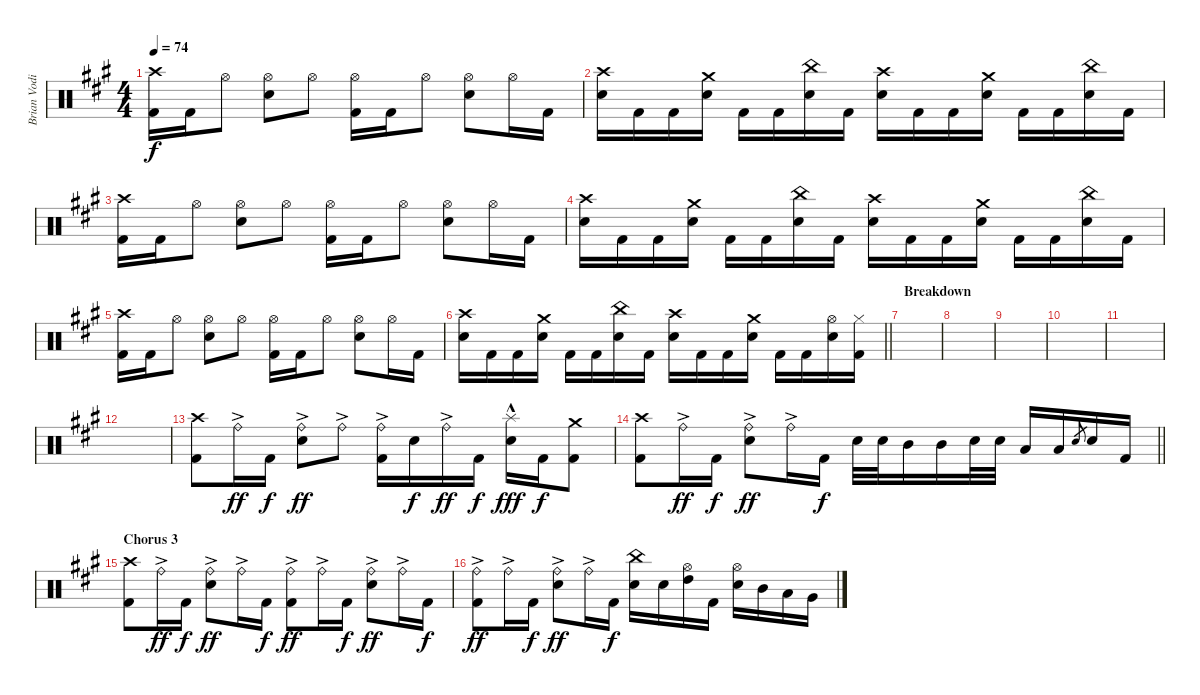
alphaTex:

\track ("Brian Vodinh" "Brian Vodi") {instrument percussion}
\staff {score}
\articulation defaults
\ts (4 4)
\tempo 74
\clef neutral
\ks f#minor
("Crash high (hit)" "Kick (hit) 2").16{dy f} "Kick (hit) 2".16 "Hi-Hat (open)".8 ("Hi-Hat (open)" "Electric Snare (hit)").8 "Hi-Hat (open)".8 ("Hi-Hat (open)" "Kick (hit) 2").16 "Kick (hit) 2".16 "Hi-Hat (open)".8 ("Hi-Hat (open)" "Electric Snare (hit)").8 "Hi-Hat (open)".16 "Kick (hit) 2".16 |
("Crash high (hit)" "Electric Snare (hit)").16 "Kick (hit) 2".16 "Kick (hit) 2".16 ("Crash medium (hit)" "Electric Snare (hit)").16 "Kick (hit) 2".16 "Kick (hit) 2".16 ("China (hit)" "Electric Snare (hit)").16 "Kick (hit) 2".16 ("Crash high (hit)" "Electric Snare (hit)").16 "Kick (hit) 2".16 "Kick (hit) 2".16 ("Crash medium (hit)" "Electric Snare (hit)").16 "Kick (hit) 2".16 "Kick (hit) 2".16 ("China (hit)" "Electric Snare (hit)").16 "Kick (hit) 2".16 |
("Crash high (hit)" "Kick (hit) 2").16 "Kick (hit) 2".16 "Hi-Hat (open)".8 ("Hi-Hat (open)" "Electric Snare (hit)").8 "Hi-Hat (open)".8 ("Hi-Hat (open)" "Kick (hit) 2").16 "Kick (hit) 2".16 "Hi-Hat (open)".8 ("Hi-Hat (open)" "Electric Snare (hit)").8 "Hi-Hat (open)".16 "Kick (hit) 2".16 |
("Crash high (hit)" "Electric Snare (hit)").16 "Kick (hit) 2".16 "Kick (hit) 2".16 ("Crash medium (hit)" "Electric Snare (hit)").16 "Kick (hit) 2".16 "Kick (hit) 2".16 ("China (hit)" "Electric Snare (hit)").16 "Kick (hit) 2".16 ("Crash high (hit)" "Electric Snare (hit)").16 "Kick (hit) 2".16 "Kick (hit) 2".16 ("Crash medium (hit)" "Electric Snare (hit)").16 "Kick (hit) 2".16 "Kick (hit) 2".16 ("China (hit)" "Electric Snare (hit)").16 "Kick (hit) 2".16 |
("Crash high (hit)" "Kick (hit) 2").16 "Kick (hit) 2".16 "Hi-Hat (open)".8 ("Hi-Hat (open)" "Electric Snare (hit)").8 "Hi-Hat (open)".8 ("Hi-Hat (open)" "Kick (hit) 2").16 "Kick (hit) 2".16 "Hi-Hat (open)".8 ("Hi-Hat (open)" "Electric Snare (hit)").8 "Hi-Hat (open)".16 "Kick (hit) 2".16 |
\barLineRight lightlight
("Crash high (hit)" "Electric Snare (hit)").16 "Kick (hit) 2".16 "Kick (hit) 2".16 ("Crash medium (hit)" "Electric Snare (hit)").16 "Kick (hit) 2".16 "Kick (hit) 2".16 ("China (hit)" "Electric Snare (hit)").16 "Kick (hit) 2".16 ("Crash high (hit)" "Electric Snare (hit)").16 "Kick (hit) 2".16 "Kick (hit) 2".16 ("Crash medium (hit)" "Electric Snare (hit)").16 "Kick (hit) 2".16 "Kick (hit) 2".16 ("Hi-Hat (open)" "Electric Snare (hit)").16 ("Hi-Hat (closed)" "Kick (hit) 2").16 |
\section ("" "Breakdown")
|
|
|
|
|
|
("Crash high (hit)" "Kick (hit) 2").8 "Ride (bell)"{ac}.16{dy ff} "Kick (hit) 2".16{dy f} ("Ride (bell)"{ac} "Electric Snare (hit)").8{dy ff} "Ride (bell)"{ac}.8 ("Ride (bell)"{ac} "Kick (hit) 2").16 "Electric Snare (hit)".16{dy f} "Ride (bell)"{ac}.16{dy ff} "Kick (hit) 2".16{dy f} ("Splash (hit)"{hac} "Electric Snare (hit)").16{dy fff} "Kick (hit) 2".16{dy f} ("Crash medium (hit)" "Kick (hit) 2").8 |
\barLineRight lightlight
("Crash high (hit)" "Kick (hit) 2").8 "Ride (bell)"{ac}.16{dy ff} "Kick (hit) 2".16{dy f} ("Ride (bell)"{ac} "Electric Snare (hit)").8{dy ff} "Ride (bell)"{ac}.16 "Kick (hit) 2".16{dy f} "Electric Snare (hit)".32 "Electric Snare (hit)".32 "Mid Tom (hit)".16 "Mid Tom (hit)".16 "Electric Snare (hit)".32 "Electric Snare (hit)".32 "Low Tom (hit)".16 "Low Tom (hit)".16 "Electric Snare (hit)".8{gr} "Electric Snare (hit)".16 "Kick (hit) 2".16 |
\section ("" "Chorus 3")
("Crash high (hit)" "Kick (hit) 2").8 "Ride (bell)"{ac}.16{dy ff} "Kick (hit) 2".16{dy f} ("Ride (bell)"{ac} "Electric Snare (hit)").8{dy ff} "Ride (bell)"{ac}.16 "Kick (hit) 2".16{dy f} ("Ride (bell)"{ac} "Kick (hit) 2").8{dy ff} "Ride (bell)"{ac}.16 "Kick (hit) 2".16{dy f} ("Ride (bell)"{ac} "Electric Snare (hit)").8{dy ff} "Ride (bell)"{ac}.16 "Kick (hit) 2".16{dy f} |
("Ride (bell)"{ac} "Kick (hit) 2").8{dy ff} "Ride (bell)"{ac}.16 "Kick (hit) 2".16{dy f} ("Ride (bell)"{ac} "Electric Snare (hit)").8{dy ff} "Ride (bell)"{ac}.16 "Kick (hit) 2".16{dy f} ("China (hit)" "Electric Snare (hit)").16 "Electric Snare (hit)".16 ("Hi-Hat (open)" "High Tom (hit)").16 "Kick (hit) 2".16 ("Hi-Hat (open)" "Electric Snare (hit)").16 "Mid Tom (hit)".16 "Low Tom (hit)".16 "Very Low Tom (hit)".16
